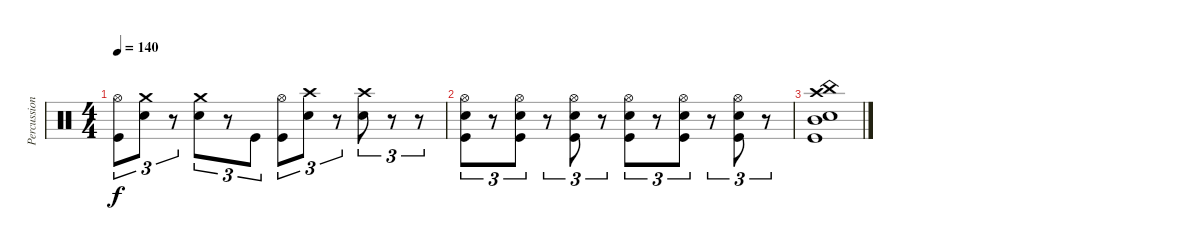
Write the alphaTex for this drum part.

\track ("Percussion" "Percussion") {instrument percussion}
\staff {score}
\articulation defaults
\ts (4 4)
\tempo 140
\clef neutral
\ks c
("Hi-Hat (open)" "Kick (hit)").8{tu (3 2) dy f} ("Crash medium (hit)" "Snare (hit) 2").8{tu (3 2)} r.8{tu (3 2)} ("Crash medium (hit)" "Snare (hit) 2").8{tu (3 2)} r.8{tu (3 2)} "Kick (hit)".8{tu (3 2)} ("Hi-Hat (open)" "Kick (hit)").8{tu (3 2)} ("Crash high (hit)" "Snare (hit) 2").8{tu (3 2)} r.8{tu (3 2)} ("Crash high (hit)" "Snare (hit) 2").8{tu (3 2)} r.8{tu (3 2)} r.8{tu (3 2)} |
("Hi-Hat (open)" "Snare (hit) 2" "Kick (hit)").8{tu (3 2)} r.8{tu (3 2)} ("Hi-Hat (open)" "Snare (hit) 2" "Kick (hit)").8{tu (3 2)} r.8{tu (3 2)} ("Hi-Hat (open)" "Snare (hit) 2" "Kick (hit)").8{tu (3 2)} r.8{tu (3 2)} ("Hi-Hat (open)" "Snare (hit) 2" "Kick (hit)").8{tu (3 2)} r.8{tu (3 2)} ("Hi-Hat (open)" "Snare (hit) 2" "Kick (hit)").8{tu (3 2)} r.8{tu (3 2)} ("Hi-Hat (open)" "Snare (hit) 2" "Kick (hit)").8{tu (3 2)} r.8{tu (3 2)} |
("China (hit)" "Mid Tom (hit)" "Crash high (hit)" "Snare (hit) 2" "Kick (hit)").1
